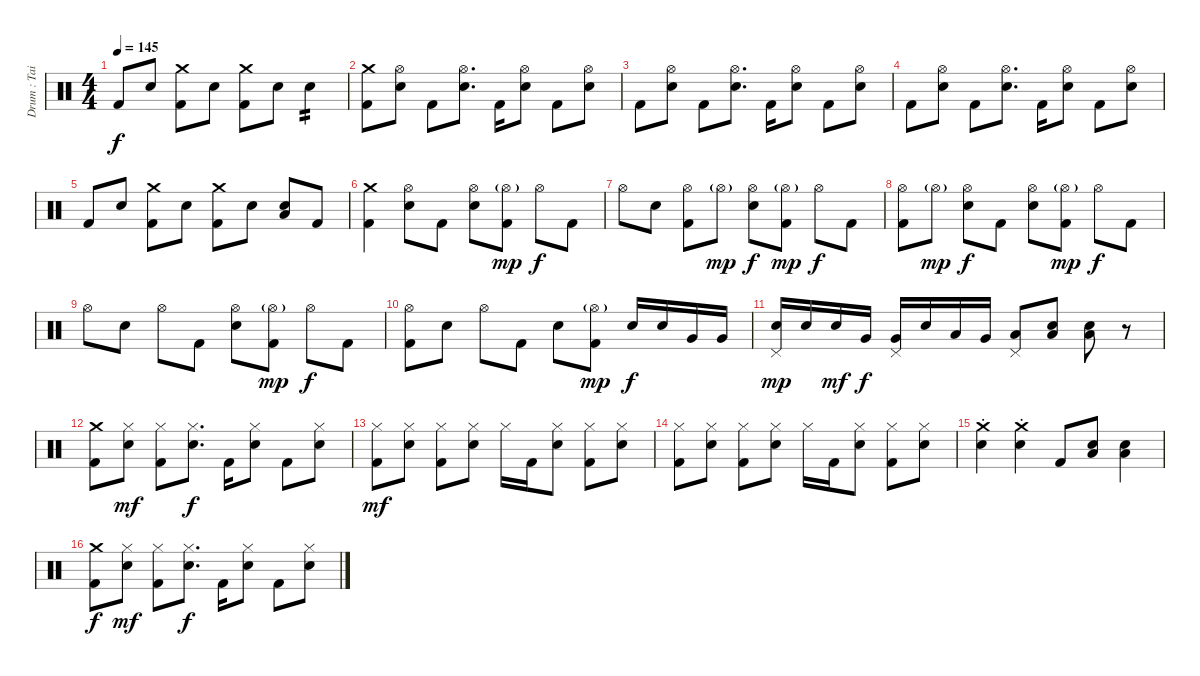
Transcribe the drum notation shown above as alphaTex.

\track ("Drum : Tainaka Ritsu" "Drum : Tai") {instrument percussion}
\staff {score}
\articulation defaults
\ts (4 4)
\tempo 145
\clef neutral
\ks c "Kick (hit) 2".8{dy f} "Electric Snare (hit)".8
("Crash medium (hit)" "Kick (hit) 2").8 "Electric Snare (hit)".8 ("Crash medium (hit)" "Kick (hit) 2").8 "Electric Snare (hit)".8 "Electric Snare (hit)".4{tp 2} |
("Crash medium (hit)" "Kick (hit) 2").8 ("Hi-Hat (open)" "Electric Snare (hit)").8 "Kick (hit) 2".8 ("Hi-Hat (open)" "Electric Snare (hit)").8{d} "Kick (hit) 2".16 ("Hi-Hat (open)" "Electric Snare (hit)").8 "Kick (hit) 2".8 ("Hi-Hat (open)" "Electric Snare (hit)").8 |
"Kick (hit) 2".8 ("Hi-Hat (open)" "Electric Snare (hit)").8 "Kick (hit) 2".8 ("Hi-Hat (open)" "Electric Snare (hit)").8{d} "Kick (hit) 2".16 ("Hi-Hat (open)" "Electric Snare (hit)").8 "Kick (hit) 2".8 ("Hi-Hat (open)" "Electric Snare (hit)").8 |
"Kick (hit) 2".8 ("Hi-Hat (open)" "Electric Snare (hit)").8 "Kick (hit) 2".8 ("Hi-Hat (open)" "Electric Snare (hit)").8{d} "Kick (hit) 2".16 ("Hi-Hat (open)" "Electric Snare (hit)").8 "Kick (hit) 2".8 ("Hi-Hat (open)" "Electric Snare (hit)").8 |
"Kick (hit) 2".8 "Electric Snare (hit)".8 ("Crash medium (hit)" "Kick (hit) 2").8 "Electric Snare (hit)".8 ("Crash medium (hit)" "Kick (hit) 2").8 "Electric Snare (hit)".8 ("Low Floor Tom (hit)" "Electric Snare (hit)").8 "Kick (hit) 2".8 |
("Crash medium (hit)" "Kick (hit) 2").4 ("Hi-Hat (open)" "Electric Snare (hit)").8 "Kick (hit) 2".8 ("Hi-Hat (open)" "Electric Snare (hit)").8 ("Hi-Hat (open)"{g} "Kick (hit) 2").8{dy mp} "Hi-Hat (open)".8{dy f} "Kick (hit) 2".8 |
"Hi-Hat (open)".8 "Electric Snare (hit)".8 ("Hi-Hat (open)" "Kick (hit) 2").8 "Hi-Hat (open)"{g}.8{dy mp} ("Hi-Hat (open)" "Electric Snare (hit)").8{dy f} ("Hi-Hat (open)"{g} "Kick (hit) 2").8{dy mp} "Hi-Hat (open)".8{dy f} "Kick (hit) 2".8 |
("Hi-Hat (open)" "Kick (hit) 2").8 "Hi-Hat (open)"{g}.8{dy mp} ("Hi-Hat (open)" "Electric Snare (hit)").8{dy f} "Kick (hit) 2".8 ("Hi-Hat (open)" "Electric Snare (hit)").8 ("Hi-Hat (open)"{g} "Kick (hit) 2").8{dy mp} "Hi-Hat (open)".8{dy f} "Kick (hit) 2".8 |
"Hi-Hat (open)".8 "Electric Snare (hit)".8 "Hi-Hat (open)".8 "Kick (hit) 2".8 ("Hi-Hat (open)" "Electric Snare (hit)").8 ("Hi-Hat (open)"{g} "Kick (hit) 2").8{dy mp} "Hi-Hat (open)".8{dy f} "Kick (hit) 2".8 |
("Hi-Hat (open)" "Kick (hit) 2").8 "Electric Snare (hit)".8 "Hi-Hat (open)".8 "Kick (hit) 2".8 "Electric Snare (hit)".8 ("Hi-Hat (open)"{g} "Kick (hit) 2").8{dy mp} "Electric Snare (hit)".16{dy f} "Electric Snare (hit)".16 "Very Low Tom (hit)".16 "Very Low Tom (hit)".16 |
("Pedal Hi-Hat (hit)" "Electric Snare (hit)").16{dy mp} "Electric Snare (hit)".16 "Electric Snare (hit)".16{dy mf} "Very Low Tom (hit)".16{dy f} ("Pedal Hi-Hat (hit)" "Very Low Tom (hit)").16 "Electric Snare (hit)".16 "Low Tom (hit)".16 "Very Low Tom (hit)".16 ("Pedal Hi-Hat (hit)" "Low Floor Tom (hit)").8 ("Low Floor Tom (hit)" "Electric Snare (hit)").8 ("Low Floor Tom (hit)" "Electric Snare (hit)").8 r.8 |
("Crash medium (hit)" "Kick (hit) 2").8 ("Hi-Hat (closed)" "Electric Snare (hit)").8{dy mf} ("Hi-Hat (closed)" "Kick (hit) 2").8 ("Hi-Hat (closed)" "Electric Snare (hit)").8{d dy f} "Kick (hit) 2".16 ("Hi-Hat (closed)" "Electric Snare (hit)").8 "Kick (hit) 2".8 ("Hi-Hat (closed)" "Electric Snare (hit)").8 |
("Hi-Hat (closed)" "Kick (hit) 2").8{dy mf} ("Hi-Hat (closed)" "Electric Snare (hit)").8 ("Hi-Hat (closed)" "Kick (hit) 2").8 ("Hi-Hat (closed)" "Electric Snare (hit)").8 "Hi-Hat (closed)".16 "Kick (hit) 2".16 ("Hi-Hat (closed)" "Electric Snare (hit)").8 ("Hi-Hat (closed)" "Kick (hit) 2").8 ("Hi-Hat (closed)" "Electric Snare (hit)").8 |
("Hi-Hat (closed)" "Kick (hit) 2").8 ("Hi-Hat (closed)" "Electric Snare (hit)").8 ("Hi-Hat (closed)" "Kick (hit) 2").8 ("Hi-Hat (closed)" "Electric Snare (hit)").8 "Hi-Hat (closed)".16 "Kick (hit) 2".16 ("Hi-Hat (closed)" "Electric Snare (hit)").8 ("Hi-Hat (closed)" "Kick (hit) 2").8 ("Hi-Hat (closed)" "Electric Snare (hit)").8 |
("Crash medium (hit)"{st} "Electric Snare (hit)"{st}).4 ("Crash medium (hit)"{st} "Electric Snare (hit)"{st}).4 "Kick (hit) 2".8 ("Low Floor Tom (hit)" "Electric Snare (hit)").8 ("Low Floor Tom (hit)" "Electric Snare (hit)").4 |
("Crash medium (hit)" "Kick (hit) 2").8{dy f} ("Hi-Hat (closed)" "Electric Snare (hit)").8{dy mf} ("Hi-Hat (closed)" "Kick (hit) 2").8 ("Hi-Hat (closed)" "Electric Snare (hit)").8{d dy f} "Kick (hit) 2".16 ("Hi-Hat (closed)" "Electric Snare (hit)").8 "Kick (hit) 2".8 ("Hi-Hat (closed)" "Electric Snare (hit)").8
